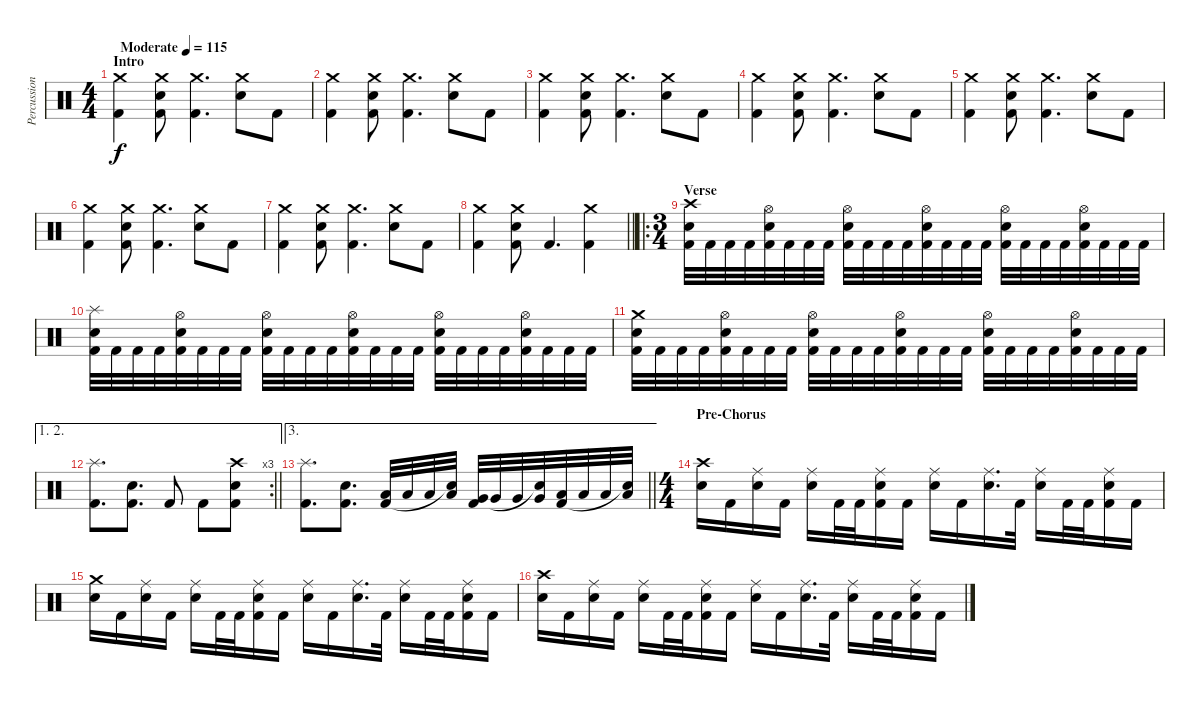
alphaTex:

\track ("Percussion" "Percussion") {instrument percussion}
\staff {score}
\articulation defaults
\ts (4 4)
\section ("" "Intro")
\tempo (115 "Moderate")
\clef neutral
\ks c
("Crash medium (hit)" "Kick (hit) 2").4{dy f} ("Crash medium (hit)" "Snare (hit) 2" "Kick (hit) 2").8 ("Crash medium (hit)" "Kick (hit) 2").4{d} ("Crash medium (hit)" "Snare (hit) 2").8 "Kick (hit) 2".8 |
("Crash medium (hit)" "Kick (hit) 2").4 ("Crash medium (hit)" "Snare (hit) 2" "Kick (hit) 2").8 ("Crash medium (hit)" "Kick (hit) 2").4{d} ("Crash medium (hit)" "Snare (hit) 2").8 "Kick (hit) 2".8 |
("Crash medium (hit)" "Kick (hit) 2").4 ("Crash medium (hit)" "Snare (hit) 2" "Kick (hit) 2").8 ("Crash medium (hit)" "Kick (hit) 2").4{d} ("Crash medium (hit)" "Snare (hit) 2").8 "Kick (hit) 2".8 |
("Crash medium (hit)" "Kick (hit) 2").4 ("Crash medium (hit)" "Snare (hit) 2" "Kick (hit) 2").8 ("Crash medium (hit)" "Kick (hit) 2").4{d} ("Crash medium (hit)" "Snare (hit) 2").8 "Kick (hit) 2".8 |
("Crash medium (hit)" "Kick (hit) 2").4 ("Crash medium (hit)" "Snare (hit) 2" "Kick (hit) 2").8 ("Crash medium (hit)" "Kick (hit) 2").4{d} ("Crash medium (hit)" "Snare (hit) 2").8 "Kick (hit) 2".8 |
("Crash medium (hit)" "Kick (hit) 2").4 ("Crash medium (hit)" "Snare (hit) 2" "Kick (hit) 2").8 ("Crash medium (hit)" "Kick (hit) 2").4{d} ("Crash medium (hit)" "Snare (hit) 2").8 "Kick (hit) 2".8 |
("Crash medium (hit)" "Kick (hit) 2").4 ("Crash medium (hit)" "Snare (hit) 2" "Kick (hit) 2").8 ("Crash medium (hit)" "Kick (hit) 2").4{d} ("Crash medium (hit)" "Snare (hit) 2").8 "Kick (hit) 2".8 |
\barLineRight lightlight
("Crash medium (hit)" "Kick (hit) 2").4 ("Crash medium (hit)" "Snare (hit) 2" "Kick (hit) 2").8 "Kick (hit) 2".4{d} ("Crash medium (hit)" "Kick (hit) 2").4 |
\ro
\ts (3 4)
\section ("" "Verse")
("Crash high (hit)" "Snare (hit) 2" "Kick (hit) 2").32 "Kick (hit) 2".32 "Kick (hit) 2".32 "Kick (hit) 2".32 ("Hi-Hat (open)" "Snare (hit) 2" "Kick (hit) 2").32 "Kick (hit) 2".32 "Kick (hit) 2".32 "Kick (hit) 2".32 ("Hi-Hat (open)" "Snare (hit) 2" "Kick (hit) 2").32 "Kick (hit) 2".32 "Kick (hit) 2".32 "Kick (hit) 2".32 ("Hi-Hat (open)" "Snare (hit) 2" "Kick (hit) 2").32 "Kick (hit) 2".32 "Kick (hit) 2".32 "Kick (hit) 2".32 ("Hi-Hat (open)" "Snare (hit) 2" "Kick (hit) 2").32 "Kick (hit) 2".32 "Kick (hit) 2".32 "Kick (hit) 2".32 ("Hi-Hat (open)" "Snare (hit) 2" "Kick (hit) 2").32 "Kick (hit) 2".32 "Kick (hit) 2".32 "Kick (hit) 2".32 |
("Splash (hit)" "Snare (hit) 2" "Kick (hit) 2").32 "Kick (hit) 2".32 "Kick (hit) 2".32 "Kick (hit) 2".32 ("Hi-Hat (open)" "Snare (hit) 2" "Kick (hit) 2").32 "Kick (hit) 2".32 "Kick (hit) 2".32 "Kick (hit) 2".32 ("Hi-Hat (open)" "Snare (hit) 2" "Kick (hit) 2").32 "Kick (hit) 2".32 "Kick (hit) 2".32 "Kick (hit) 2".32 ("Hi-Hat (open)" "Snare (hit) 2" "Kick (hit) 2").32 "Kick (hit) 2".32 "Kick (hit) 2".32 "Kick (hit) 2".32 ("Hi-Hat (open)" "Snare (hit) 2" "Kick (hit) 2").32 "Kick (hit) 2".32 "Kick (hit) 2".32 "Kick (hit) 2".32 ("Hi-Hat (open)" "Snare (hit) 2" "Kick (hit) 2").32 "Kick (hit) 2".32 "Kick (hit) 2".32 "Kick (hit) 2".32 |
("Crash medium (hit)" "Snare (hit) 2" "Kick (hit) 2").32 "Kick (hit) 2".32 "Kick (hit) 2".32 "Kick (hit) 2".32 ("Hi-Hat (open)" "Snare (hit) 2" "Kick (hit) 2").32 "Kick (hit) 2".32 "Kick (hit) 2".32 "Kick (hit) 2".32 ("Hi-Hat (open)" "Snare (hit) 2" "Kick (hit) 2").32 "Kick (hit) 2".32 "Kick (hit) 2".32 "Kick (hit) 2".32 ("Hi-Hat (open)" "Snare (hit) 2" "Kick (hit) 2").32 "Kick (hit) 2".32 "Kick (hit) 2".32 "Kick (hit) 2".32 ("Hi-Hat (open)" "Snare (hit) 2" "Kick (hit) 2").32 "Kick (hit) 2".32 "Kick (hit) 2".32 "Kick (hit) 2".32 ("Hi-Hat (open)" "Snare (hit) 2" "Kick (hit) 2").32 "Kick (hit) 2".32 "Kick (hit) 2".32 "Kick (hit) 2".32 |
\ae (1 2)
\rc 3
\barLineRight lightlight
("Splash (hit)" "Kick (hit) 2").8{d} ("Snare (hit) 2" "Kick (hit) 2").8{d} "Kick (hit) 2".8 "Kick (hit) 2".8 ("Crash high (hit)" "Snare (hit) 2" "Kick (hit) 2").8 |
\ae 3
\barLineRight lightlight
("Splash (hit)" "Kick (hit) 2").8{d} ("Snare (hit) 2" "Kick (hit) 2").8{d} ("Low Tom (hit)" "Kick (hit) 2").32 "Low Tom (hit)".32 "Low Tom (hit)".32 ("Low Tom (hit)" "Snare (hit)"{t}).32 ("Very Low Tom (hit)" "Kick (hit) 2").32 "Very Low Tom (hit)".32 "Very Low Tom (hit)".32 ("Very Low Tom (hit)" "Snare (hit)"{t}).32 ("Low Floor Tom (hit)" "Kick (hit) 2").32 "Low Floor Tom (hit)".32 "Low Floor Tom (hit)".32 ("Low Floor Tom (hit)" "Snare (hit)"{t}).32 |
\ts (4 4)
\section ("" "Pre-Chorus")
("Crash high (hit)" "Snare (hit) 2").16 "Kick (hit) 2".16 ("Ride (middle)" "Snare (hit) 2").16 "Kick (hit) 2".16 ("Ride (middle)" "Snare (hit) 2").16 "Kick (hit) 2".32 "Kick (hit) 2".32 ("Ride (middle)" "Snare (hit) 2" "Kick (hit) 2").16 "Kick (hit) 2".16 ("Ride (middle)" "Snare (hit) 2").16 "Kick (hit) 2".16 ("Ride (middle)" "Snare (hit) 2").16{d} "Kick (hit) 2".32 ("Ride (middle)" "Snare (hit) 2").16 "Kick (hit) 2".32 "Kick (hit) 2".32 ("Ride (middle)" "Snare (hit) 2" "Kick (hit) 2").16 "Kick (hit) 2".16 |
("Crash medium (hit)" "Snare (hit) 2").16 "Kick (hit) 2".16 ("Ride (middle)" "Snare (hit) 2").16 "Kick (hit) 2".16 ("Ride (middle)" "Snare (hit) 2").16 "Kick (hit) 2".32 "Kick (hit) 2".32 ("Ride (middle)" "Snare (hit) 2" "Kick (hit) 2").16 "Kick (hit) 2".16 ("Ride (middle)" "Snare (hit) 2").16 "Kick (hit) 2".16 ("Ride (middle)" "Snare (hit) 2").16{d} "Kick (hit) 2".32 ("Ride (middle)" "Snare (hit) 2").16 "Kick (hit) 2".32 "Kick (hit) 2".32 ("Ride (middle)" "Snare (hit) 2" "Kick (hit) 2").16 "Kick (hit) 2".16 |
("Crash high (hit)" "Snare (hit) 2").16 "Kick (hit) 2".16 ("Ride (middle)" "Snare (hit) 2").16 "Kick (hit) 2".16 ("Ride (middle)" "Snare (hit) 2").16 "Kick (hit) 2".32 "Kick (hit) 2".32 ("Ride (middle)" "Snare (hit) 2" "Kick (hit) 2").16 "Kick (hit) 2".16 ("Ride (middle)" "Snare (hit) 2").16 "Kick (hit) 2".16 ("Ride (middle)" "Snare (hit) 2").16{d} "Kick (hit) 2".32 ("Ride (middle)" "Snare (hit) 2").16 "Kick (hit) 2".32 "Kick (hit) 2".32 ("Ride (middle)" "Snare (hit) 2" "Kick (hit) 2").16 "Kick (hit) 2".16
